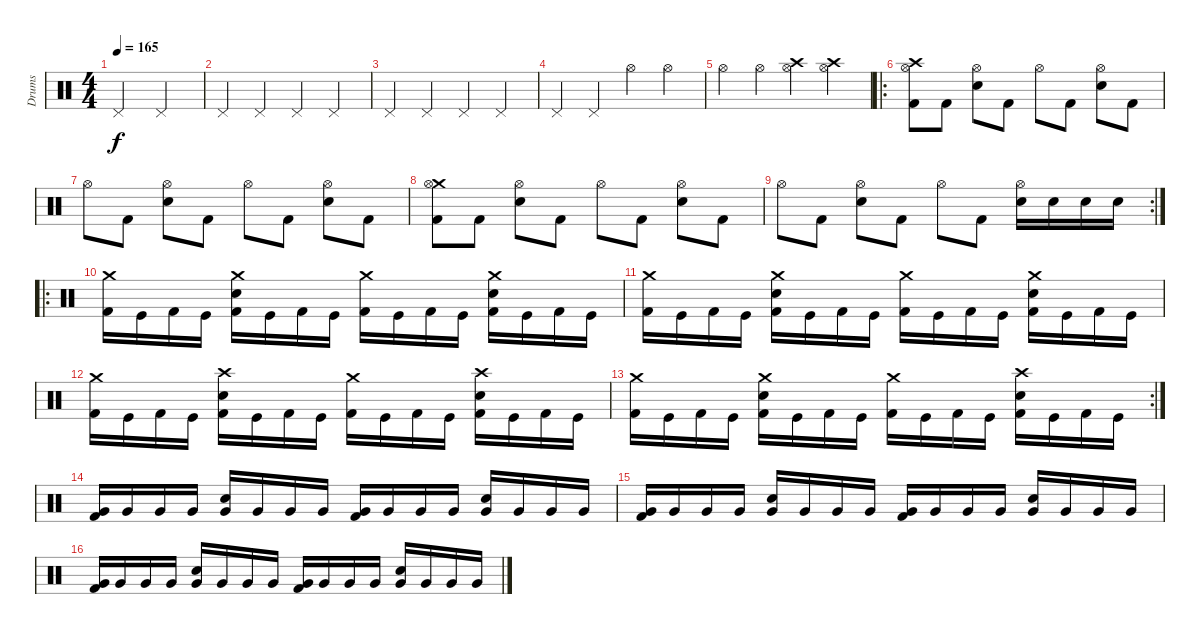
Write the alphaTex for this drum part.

\track ("Drums" "Drums") {instrument percussion}
\staff {score}
\articulation defaults
\ts (4 4)
\tempo 165
\clef neutral
\ks c "Pedal Hi-Hat (hit)".2{dy f} "Pedal Hi-Hat (hit)".2
|
"Pedal Hi-Hat (hit)".4 "Pedal Hi-Hat (hit)".4 "Pedal Hi-Hat (hit)".4 "Pedal Hi-Hat (hit)".4 |
"Pedal Hi-Hat (hit)".4 "Pedal Hi-Hat (hit)".4 "Pedal Hi-Hat (hit)".4 "Pedal Hi-Hat (hit)".4 |
"Pedal Hi-Hat (hit)".4 "Pedal Hi-Hat (hit)".4 "Hi-Hat (open)".4 "Hi-Hat (open)".4 |
"Hi-Hat (open)".4 "Hi-Hat (open)".4 ("Crash high (hit)" "Hi-Hat (open)").4 ("Crash high (hit)" "Hi-Hat (open)").4 |
\ro
("Crash high (hit)" "Hi-Hat (open)" "Kick (hit) 2").8 "Kick (hit) 2".8 ("Hi-Hat (open)" "Snare (hit) 2").8 "Kick (hit) 2".8 "Hi-Hat (open)".8 "Kick (hit) 2".8 ("Hi-Hat (open)" "Snare (hit) 2").8 "Kick (hit) 2".8 |
"Hi-Hat (open)".8 "Kick (hit) 2".8 ("Hi-Hat (open)" "Snare (hit) 2").8 "Kick (hit) 2".8 "Hi-Hat (open)".8 "Kick (hit) 2".8 ("Hi-Hat (open)" "Snare (hit) 2").8 "Kick (hit) 2".8 |
("Crash medium (hit)" "Hi-Hat (open)" "Kick (hit) 2").8 "Kick (hit) 2".8 ("Hi-Hat (open)" "Snare (hit) 2").8 "Kick (hit) 2".8 "Hi-Hat (open)".8 "Kick (hit) 2".8 ("Hi-Hat (open)" "Snare (hit) 2").8 "Kick (hit) 2".8 |
\rc 2 "Hi-Hat (open)".8 "Kick (hit) 2".8
("Hi-Hat (open)" "Snare (hit) 2").8 "Kick (hit) 2".8 "Hi-Hat (open)".8 "Kick (hit) 2".8 ("Hi-Hat (open)" "Snare (hit) 2").16 "Snare (hit) 2".16 "Snare (hit) 2".16 "Snare (hit) 2".16 |
\ro
("Crash medium (hit)" "Kick (hit) 2").16 "Kick (hit)".16 "Kick (hit) 2".16 "Kick (hit)".16 ("Crash medium (hit)" "Snare (hit) 2" "Kick (hit) 2").16 "Kick (hit)".16 "Kick (hit) 2".16 "Kick (hit)".16 ("Crash medium (hit)" "Kick (hit) 2").16 "Kick (hit)".16 "Kick (hit) 2".16 "Kick (hit)".16 ("Crash medium (hit)" "Snare (hit) 2" "Kick (hit) 2").16 "Kick (hit)".16 "Kick (hit) 2".16 "Kick (hit)".16 |
("Crash medium (hit)" "Kick (hit) 2").16 "Kick (hit)".16 "Kick (hit) 2".16 "Kick (hit)".16 ("Crash medium (hit)" "Snare (hit) 2" "Kick (hit) 2").16 "Kick (hit)".16 "Kick (hit) 2".16 "Kick (hit)".16 ("Crash medium (hit)" "Kick (hit) 2").16 "Kick (hit)".16 "Kick (hit) 2".16 "Kick (hit)".16 ("Crash medium (hit)" "Snare (hit) 2" "Kick (hit) 2").16 "Kick (hit)".16 "Kick (hit) 2".16 "Kick (hit)".16 |
("Crash medium (hit)" "Kick (hit) 2").16 "Kick (hit)".16 "Kick (hit) 2".16 "Kick (hit)".16 ("Crash high (hit)" "Snare (hit) 2" "Kick (hit) 2").16 "Kick (hit)".16 "Kick (hit) 2".16 "Kick (hit)".16 ("Crash medium (hit)" "Kick (hit) 2").16 "Kick (hit)".16 "Kick (hit) 2".16 "Kick (hit)".16 ("Crash high (hit)" "Snare (hit) 2" "Kick (hit) 2").16 "Kick (hit)".16 "Kick (hit) 2".16 "Kick (hit)".16 |
\rc 2
("Crash medium (hit)" "Kick (hit) 2").16 "Kick (hit)".16 "Kick (hit) 2".16 "Kick (hit)".16 ("Crash medium (hit)" "Snare (hit) 2" "Kick (hit) 2").16 "Kick (hit)".16 "Kick (hit) 2".16 "Kick (hit)".16 ("Crash medium (hit)" "Kick (hit) 2").16 "Kick (hit)".16 "Kick (hit) 2".16 "Kick (hit)".16 ("Crash high (hit)" "Snare (hit) 2" "Kick (hit) 2").16 "Kick (hit)".16 "Kick (hit) 2".16 "Kick (hit)".16 |
("Very Low Tom (hit)" "Kick (hit) 2").16 "Very Low Tom (hit)".16 "Very Low Tom (hit)".16 "Very Low Tom (hit)".16 ("Very Low Tom (hit)" "Snare (hit) 2").16 "Very Low Tom (hit)".16 "Very Low Tom (hit)".16 "Very Low Tom (hit)".16 ("Very Low Tom (hit)" "Kick (hit) 2").16 "Very Low Tom (hit)".16 "Very Low Tom (hit)".16 "Very Low Tom (hit)".16 ("Very Low Tom (hit)" "Snare (hit) 2").16 "Very Low Tom (hit)".16 "Very Low Tom (hit)".16 "Very Low Tom (hit)".16 |
("Very Low Tom (hit)" "Kick (hit) 2").16 "Very Low Tom (hit)".16 "Very Low Tom (hit)".16 "Very Low Tom (hit)".16 ("Very Low Tom (hit)" "Snare (hit) 2").16 "Very Low Tom (hit)".16 "Very Low Tom (hit)".16 "Very Low Tom (hit)".16 ("Very Low Tom (hit)" "Kick (hit) 2").16 "Very Low Tom (hit)".16 "Very Low Tom (hit)".16 "Very Low Tom (hit)".16 ("Very Low Tom (hit)" "Snare (hit) 2").16 "Very Low Tom (hit)".16 "Very Low Tom (hit)".16 "Very Low Tom (hit)".16 |
("Very Low Tom (hit)" "Kick (hit) 2").16{volume 8} "Very Low Tom (hit)".16 "Very Low Tom (hit)".16 "Very Low Tom (hit)".16 ("Very Low Tom (hit)" "Snare (hit) 2").16 "Very Low Tom (hit)".16 "Very Low Tom (hit)".16 "Very Low Tom (hit)".16 ("Very Low Tom (hit)" "Kick (hit) 2").16 "Very Low Tom (hit)".16 "Very Low Tom (hit)".16 "Very Low Tom (hit)".16 ("Very Low Tom (hit)" "Snare (hit) 2").16 "Very Low Tom (hit)".16 "Very Low Tom (hit)".16 "Very Low Tom (hit)".16
